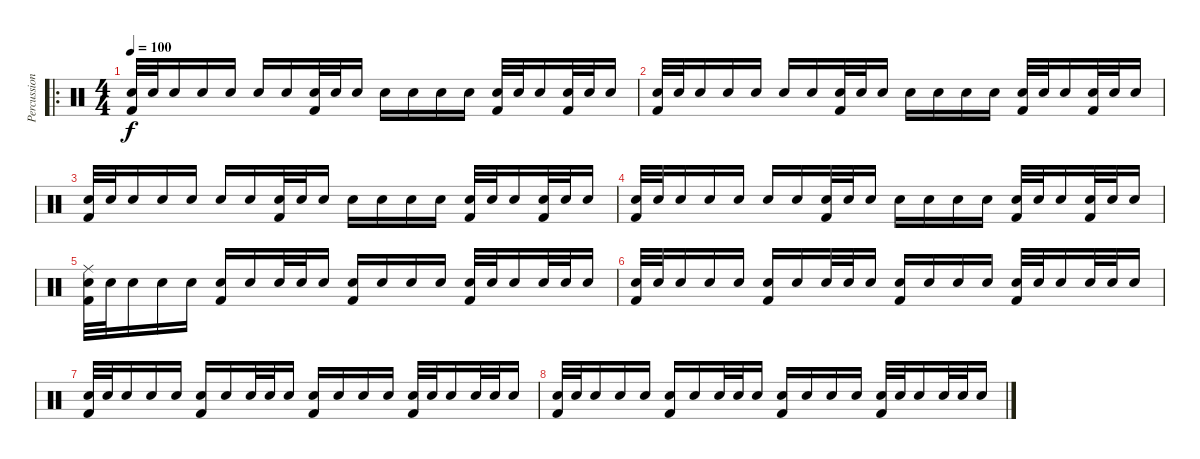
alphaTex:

\track ("Percussion" "Percussion") {instrument percussion}
\staff {score}
\articulation defaults
\ro
\ts (4 4)
\tempo 100
\clef neutral
\ks c
("Electric Snare (hit)" "Kick (hit) 2").32{dy f} "Electric Snare (hit)".32 "Electric Snare (hit)".16 "Electric Snare (hit)".16 "Electric Snare (hit)".16 "Electric Snare (hit)".16 "Electric Snare (hit)".16 ("Electric Snare (hit)" "Kick (hit) 2").32 "Electric Snare (hit)".32 "Electric Snare (hit)".16 "Electric Snare (hit)".16 "Electric Snare (hit)".16 "Electric Snare (hit)".16 "Electric Snare (hit)".16 ("Electric Snare (hit)" "Kick (hit) 2").32 "Electric Snare (hit)".32 "Electric Snare (hit)".16 ("Electric Snare (hit)" "Kick (hit) 2").32 "Electric Snare (hit)".32 "Electric Snare (hit)".16 |
("Electric Snare (hit)" "Kick (hit) 2").32 "Electric Snare (hit)".32 "Electric Snare (hit)".16 "Electric Snare (hit)".16 "Electric Snare (hit)".16 "Electric Snare (hit)".16 "Electric Snare (hit)".16 ("Electric Snare (hit)" "Kick (hit) 2").32 "Electric Snare (hit)".32 "Electric Snare (hit)".16 "Electric Snare (hit)".16 "Electric Snare (hit)".16 "Electric Snare (hit)".16 "Electric Snare (hit)".16 ("Electric Snare (hit)" "Kick (hit) 2").32 "Electric Snare (hit)".32 "Electric Snare (hit)".16 ("Electric Snare (hit)" "Kick (hit) 2").32 "Electric Snare (hit)".32 "Electric Snare (hit)".16 |
("Electric Snare (hit)" "Kick (hit) 2").32 "Electric Snare (hit)".32 "Electric Snare (hit)".16 "Electric Snare (hit)".16 "Electric Snare (hit)".16 "Electric Snare (hit)".16 "Electric Snare (hit)".16 ("Electric Snare (hit)" "Kick (hit) 2").32 "Electric Snare (hit)".32 "Electric Snare (hit)".16 "Electric Snare (hit)".16 "Electric Snare (hit)".16 "Electric Snare (hit)".16 "Electric Snare (hit)".16 ("Electric Snare (hit)" "Kick (hit) 2").32 "Electric Snare (hit)".32 "Electric Snare (hit)".16 ("Electric Snare (hit)" "Kick (hit) 2").32 "Electric Snare (hit)".32 "Electric Snare (hit)".16 |
("Electric Snare (hit)" "Kick (hit) 2").32 "Electric Snare (hit)".32 "Electric Snare (hit)".16 "Electric Snare (hit)".16 "Electric Snare (hit)".16 "Electric Snare (hit)".16 "Electric Snare (hit)".16 ("Electric Snare (hit)" "Kick (hit) 2").32 "Electric Snare (hit)".32 "Electric Snare (hit)".16 "Electric Snare (hit)".16 "Electric Snare (hit)".16 "Electric Snare (hit)".16 "Electric Snare (hit)".16 ("Electric Snare (hit)" "Kick (hit) 2").32 "Electric Snare (hit)".32 "Electric Snare (hit)".16 ("Electric Snare (hit)" "Kick (hit) 2").32 "Electric Snare (hit)".32 "Electric Snare (hit)".16 |
("Ride (middle)" "Electric Snare (hit)" "Kick (hit) 2").32 "Electric Snare (hit)".32 "Electric Snare (hit)".16 "Electric Snare (hit)".16 "Electric Snare (hit)".16 ("Electric Snare (hit)" "Kick (hit) 2").16 "Electric Snare (hit)".16 "Electric Snare (hit)".32 "Electric Snare (hit)".32 "Electric Snare (hit)".16 ("Electric Snare (hit)" "Kick (hit) 2").16 "Electric Snare (hit)".16 "Electric Snare (hit)".16 "Electric Snare (hit)".16 ("Electric Snare (hit)" "Kick (hit) 2").32 "Electric Snare (hit)".32 "Electric Snare (hit)".16 "Electric Snare (hit)".32 "Electric Snare (hit)".32 "Electric Snare (hit)".16 |
("Electric Snare (hit)" "Kick (hit) 2").32 "Electric Snare (hit)".32 "Electric Snare (hit)".16 "Electric Snare (hit)".16 "Electric Snare (hit)".16 ("Electric Snare (hit)" "Kick (hit) 2").16 "Electric Snare (hit)".16 "Electric Snare (hit)".32 "Electric Snare (hit)".32 "Electric Snare (hit)".16 ("Electric Snare (hit)" "Kick (hit) 2").16 "Electric Snare (hit)".16 "Electric Snare (hit)".16 "Electric Snare (hit)".16 ("Electric Snare (hit)" "Kick (hit) 2").32 "Electric Snare (hit)".32 "Electric Snare (hit)".16 "Electric Snare (hit)".32 "Electric Snare (hit)".32 "Electric Snare (hit)".16 |
("Electric Snare (hit)" "Kick (hit) 2").32 "Electric Snare (hit)".32 "Electric Snare (hit)".16 "Electric Snare (hit)".16 "Electric Snare (hit)".16 ("Electric Snare (hit)" "Kick (hit) 2").16 "Electric Snare (hit)".16 "Electric Snare (hit)".32 "Electric Snare (hit)".32 "Electric Snare (hit)".16 ("Electric Snare (hit)" "Kick (hit) 2").16 "Electric Snare (hit)".16 "Electric Snare (hit)".16 "Electric Snare (hit)".16 ("Electric Snare (hit)" "Kick (hit) 2").32 "Electric Snare (hit)".32 "Electric Snare (hit)".16 "Electric Snare (hit)".32 "Electric Snare (hit)".32 "Electric Snare (hit)".16 |
("Electric Snare (hit)" "Kick (hit) 2").32 "Electric Snare (hit)".32 "Electric Snare (hit)".16 "Electric Snare (hit)".16 "Electric Snare (hit)".16 ("Electric Snare (hit)" "Kick (hit) 2").16 "Electric Snare (hit)".16 "Electric Snare (hit)".32 "Electric Snare (hit)".32 "Electric Snare (hit)".16 ("Electric Snare (hit)" "Kick (hit) 2").16 "Electric Snare (hit)".16 "Electric Snare (hit)".16 "Electric Snare (hit)".16 ("Electric Snare (hit)" "Kick (hit) 2").32 "Electric Snare (hit)".32 "Electric Snare (hit)".16 "Electric Snare (hit)".32 "Electric Snare (hit)".32 "Electric Snare (hit)".16
